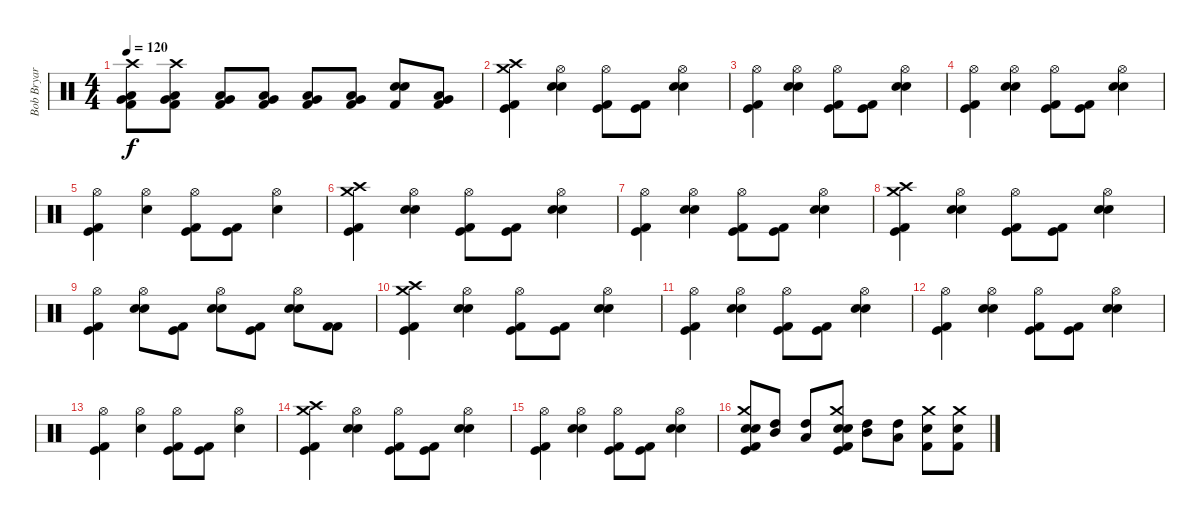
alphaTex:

\track ("Bob Bryar" "Bob Bryar") {instrument percussion}
\staff {score}
\articulation defaults
\ts (4 4)
\tempo 120
\clef neutral
\ks c
("Crash high (hit)" "Very Low Tom (hit)" "Low Tom (hit)" "Kick (hit) 2").8{dy f} ("Crash high (hit)" "Very Low Tom (hit)" "Low Tom (hit)" "Kick (hit) 2").8 ("Very Low Tom (hit)" "Low Tom (hit)" "Kick (hit) 2").8 ("Very Low Tom (hit)" "Low Tom (hit)" "Kick (hit) 2").8 ("Very Low Tom (hit)" "Low Tom (hit)" "Kick (hit) 2").8 ("Very Low Tom (hit)" "Low Tom (hit)" "Kick (hit) 2").8 ("Electric Snare (hit)" "Snare (hit) 2" "Kick (hit) 2").8 ("Very Low Tom (hit)" "Low Tom (hit)" "Kick (hit) 2").8 |
("Crash medium (hit)" "Crash high (hit)" "Kick (hit)" "Kick (hit) 2").4 ("Hi-Hat (open)" "Electric Snare (hit)" "Snare (hit) 2").4 ("Hi-Hat (open)" "Kick (hit)" "Kick (hit) 2").8 ("Kick (hit)" "Kick (hit) 2").8 ("Hi-Hat (open)" "Electric Snare (hit)" "Snare (hit) 2").4 |
("Hi-Hat (open)" "Kick (hit)" "Kick (hit) 2").4 ("Hi-Hat (open)" "Electric Snare (hit)" "Snare (hit) 2").4 ("Hi-Hat (open)" "Kick (hit)" "Kick (hit) 2").8 ("Kick (hit)" "Kick (hit) 2").8 ("Hi-Hat (open)" "Electric Snare (hit)" "Snare (hit) 2").4 |
("Hi-Hat (open)" "Kick (hit)" "Kick (hit) 2").4 ("Hi-Hat (open)" "Electric Snare (hit)" "Snare (hit) 2").4 ("Hi-Hat (open)" "Kick (hit)" "Kick (hit) 2").8 ("Kick (hit)" "Kick (hit) 2").8 ("Hi-Hat (open)" "Electric Snare (hit)" "Snare (hit) 2").4 |
("Hi-Hat (open)" "Kick (hit)" "Kick (hit) 2").4 ("Hi-Hat (open)" "Snare (hit) 2").4 ("Hi-Hat (open)" "Kick (hit)" "Kick (hit) 2").8 ("Kick (hit)" "Kick (hit) 2").8 ("Hi-Hat (open)" "Snare (hit) 2").4 |
("Crash medium (hit)" "Crash high (hit)" "Kick (hit)" "Kick (hit) 2").4 ("Hi-Hat (open)" "Electric Snare (hit)" "Snare (hit) 2").4 ("Hi-Hat (open)" "Kick (hit)" "Kick (hit) 2").8 ("Kick (hit)" "Kick (hit) 2").8 ("Hi-Hat (open)" "Electric Snare (hit)" "Snare (hit) 2").4 |
("Hi-Hat (open)" "Kick (hit)" "Kick (hit) 2").4 ("Hi-Hat (open)" "Electric Snare (hit)" "Snare (hit) 2").4 ("Hi-Hat (open)" "Kick (hit)" "Kick (hit) 2").8 ("Kick (hit)" "Kick (hit) 2").8 ("Hi-Hat (open)" "Electric Snare (hit)" "Snare (hit) 2").4 |
("Crash medium (hit)" "Crash high (hit)" "Kick (hit)" "Kick (hit) 2").4 ("Hi-Hat (open)" "Electric Snare (hit)" "Snare (hit) 2").4 ("Hi-Hat (open)" "Kick (hit)" "Kick (hit) 2").8 ("Kick (hit)" "Kick (hit) 2").8 ("Hi-Hat (open)" "Electric Snare (hit)" "Snare (hit) 2").4 |
("Hi-Hat (open)" "Kick (hit)" "Kick (hit) 2").4 ("Hi-Hat (open)" "Electric Snare (hit)" "Snare (hit) 2").8 ("Kick (hit)" "Kick (hit) 2").8 ("Hi-Hat (open)" "Electric Snare (hit)" "Snare (hit) 2").8 ("Kick (hit)" "Kick (hit) 2").8 ("Hi-Hat (open)" "Electric Snare (hit)" "Snare (hit) 2").8 ("Kick (hit) 2" "Kick (hit) 2").8 |
("Crash medium (hit)" "Crash high (hit)" "Kick (hit)" "Kick (hit) 2").4 ("Hi-Hat (open)" "Electric Snare (hit)" "Snare (hit) 2").4 ("Hi-Hat (open)" "Kick (hit)" "Kick (hit) 2").8 ("Kick (hit)" "Kick (hit) 2").8 ("Hi-Hat (open)" "Electric Snare (hit)" "Snare (hit) 2").4 |
("Hi-Hat (open)" "Kick (hit)" "Kick (hit) 2").4 ("Hi-Hat (open)" "Electric Snare (hit)" "Snare (hit) 2").4 ("Hi-Hat (open)" "Kick (hit)" "Kick (hit) 2").8 ("Kick (hit)" "Kick (hit) 2").8 ("Hi-Hat (open)" "Electric Snare (hit)" "Snare (hit) 2").4 |
("Hi-Hat (open)" "Kick (hit)" "Kick (hit) 2").4 ("Hi-Hat (open)" "Electric Snare (hit)" "Snare (hit) 2").4 ("Hi-Hat (open)" "Kick (hit)" "Kick (hit) 2").8 ("Kick (hit)" "Kick (hit) 2").8 ("Hi-Hat (open)" "Electric Snare (hit)" "Snare (hit) 2").4 |
("Hi-Hat (open)" "Kick (hit)" "Kick (hit) 2").4 ("Hi-Hat (open)" "Snare (hit) 2").4 ("Hi-Hat (open)" "Kick (hit)" "Kick (hit) 2").8 ("Kick (hit)" "Kick (hit) 2").8 ("Hi-Hat (open)" "Snare (hit) 2").4 |
("Crash medium (hit)" "Crash high (hit)" "Kick (hit)" "Kick (hit) 2").4 ("Hi-Hat (open)" "Electric Snare (hit)" "Snare (hit) 2").4 ("Hi-Hat (open)" "Kick (hit)" "Kick (hit) 2").8 ("Kick (hit)" "Kick (hit) 2").8 ("Hi-Hat (open)" "Electric Snare (hit)" "Snare (hit) 2").4 |
("Hi-Hat (open)" "Kick (hit)" "Kick (hit) 2").4 ("Hi-Hat (open)" "Electric Snare (hit)" "Snare (hit) 2").4 ("Hi-Hat (open)" "Kick (hit)" "Kick (hit) 2").8 ("Kick (hit)" "Kick (hit) 2").8 ("Hi-Hat (open)" "Electric Snare (hit)" "Snare (hit) 2").4 |
("Crash medium (hit)" "Electric Snare (hit)" "Snare (hit) 2" "Kick (hit)" "Kick (hit) 2").8 ("Mid Tom (hit)" "High Tom (hit)").8 ("High Tom (hit)" "Low Tom (hit)").8 ("Crash medium (hit)" "Electric Snare (hit)" "Snare (hit) 2" "Kick (hit)" "Kick (hit) 2").8 ("Mid Tom (hit)" "High Tom (hit)").8 ("High Tom (hit)" "Low Tom (hit)").8 ("Crash medium (hit)" "Snare (hit) 2" "Kick (hit) 2").8 ("Crash medium (hit)" "Snare (hit) 2" "Kick (hit) 2").8
